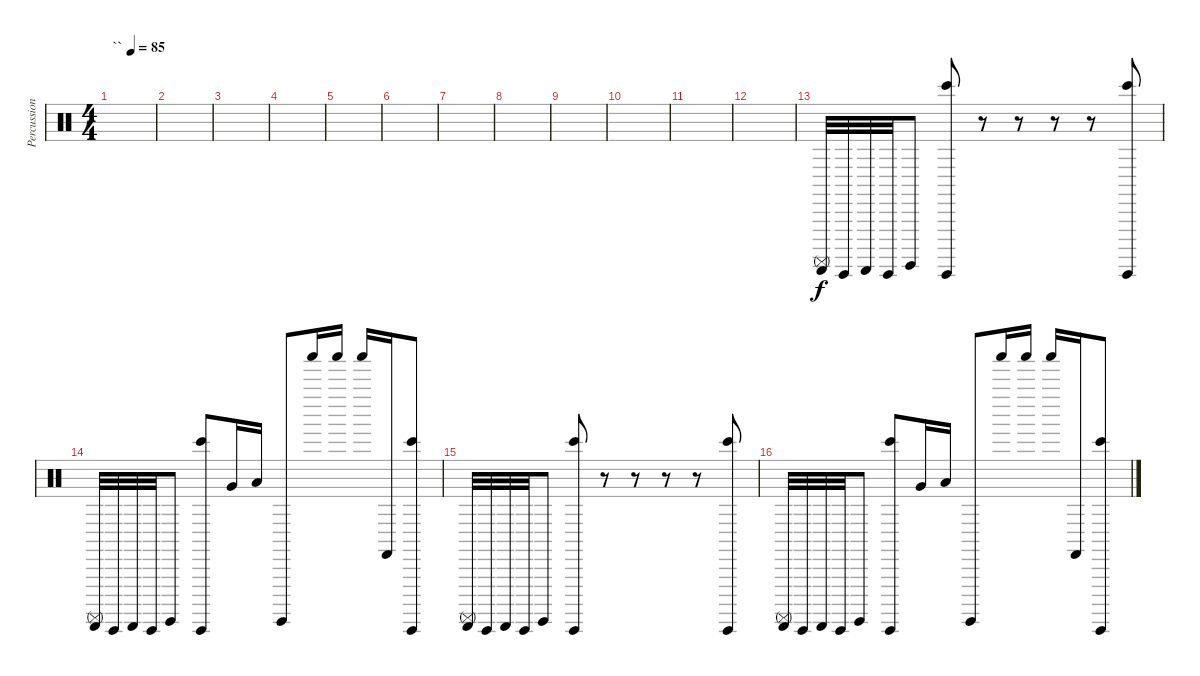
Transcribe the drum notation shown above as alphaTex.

\track ("Percussion" "Percussion") {instrument percussion}
\staff {score}
\articulation defaults
\ts (4 4)
\tempo (85 "``")
\clef neutral
\ks c
|
|
|
|
|
|
|
|
|
|
|
|
("Guiro (scrap-return)" "Surdo (mute)").32 "Guiro (hit)".32 "Guiro (scrap-return)".32 "Guiro (hit)".32 "Surdo (hit)".8 ("Bongo High (hit)" "Guiro (hit)").8 r.8 r.8 r.8 r.8 ("Bongo High (hit)" "Guiro (hit)").8 |
("Guiro (scrap-return)" "Surdo (mute)").32 "Guiro (hit)".32 "Guiro (scrap-return)".32 "Guiro (hit)".32 "Surdo (hit)".8 ("Bongo High (hit)" "Guiro (hit)").8 "Very Low Tom (hit)".16 "Low Floor Tom (hit)".16 "Surdo (hit)".8 "Shaker (hit)".16 "Shaker (hit)".16 "Shaker (hit)".16 "Castanets (hit)".16 ("Bongo High (hit)" "Guiro (hit)").8 |
("Guiro (scrap-return)" "Surdo (mute)").32 "Guiro (hit)".32 "Guiro (scrap-return)".32 "Guiro (hit)".32 "Surdo (hit)".8 ("Bongo High (hit)" "Guiro (hit)").8 r.8 r.8 r.8 r.8 ("Bongo High (hit)" "Guiro (hit)").8 |
("Guiro (scrap-return)" "Surdo (mute)").32 "Guiro (hit)".32 "Guiro (scrap-return)".32 "Guiro (hit)".32 "Surdo (hit)".8 ("Bongo High (hit)" "Guiro (hit)").8 "Very Low Tom (hit)".16 "Low Floor Tom (hit)".16 "Surdo (hit)".8 "Shaker (hit)".16 "Shaker (hit)".16 "Shaker (hit)".16 "Castanets (hit)".16 ("Bongo High (hit)" "Guiro (hit)").8
